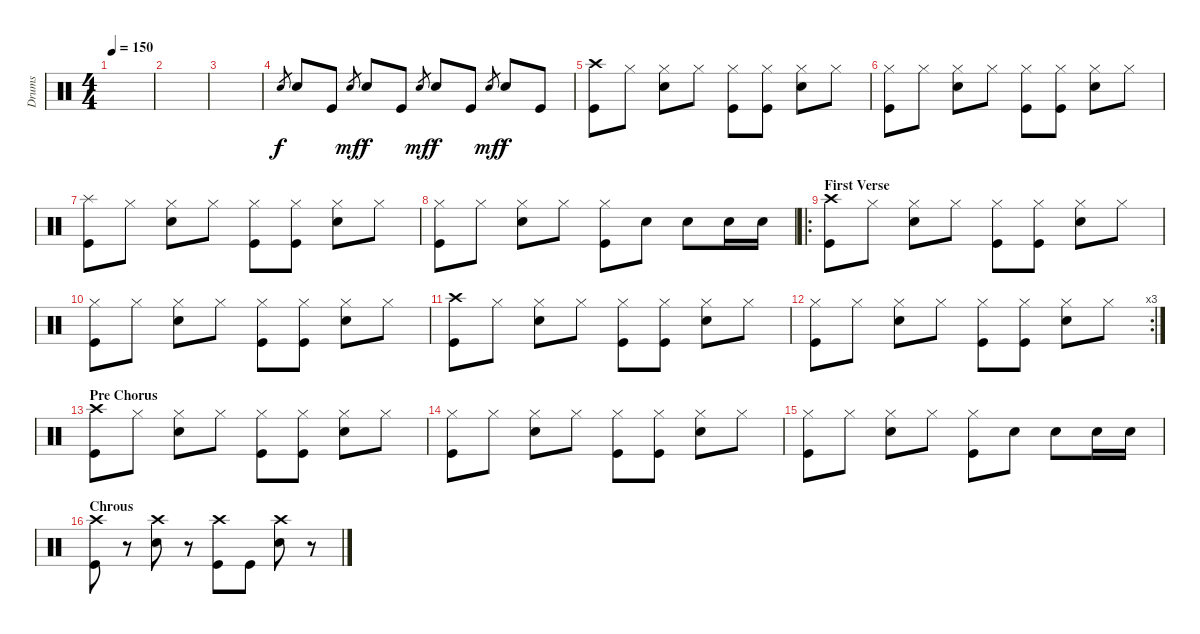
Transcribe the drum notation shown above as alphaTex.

\track ("Drums" "Drums") {instrument percussion}
\staff {score}
\articulation defaults
\ts (4 4)
\tempo 150
\clef neutral
\ks c
|
|
|
"Snare (hit) 2".8{gr} "Snare (hit) 2".8{dy f} "Kick (hit)".8 "Snare (hit) 2".8{gr dy mf} "Snare (hit) 2".8{dy f} "Kick (hit)".8 "Snare (hit) 2".8{gr dy mf} "Snare (hit) 2".8{dy f} "Kick (hit)".8 "Snare (hit) 2".8{gr dy mf} "Snare (hit) 2".8{dy f} "Kick (hit)".8 |
("Crash high (hit)" "Kick (hit)").8 "Hi-Hat (closed)".8 ("Hi-Hat (closed)" "Snare (hit) 2").8 "Hi-Hat (closed)".8 ("Hi-Hat (closed)" "Kick (hit)").8 ("Hi-Hat (closed)" "Kick (hit)").8 ("Hi-Hat (closed)" "Snare (hit) 2").8 "Hi-Hat (closed)".8 |
("Hi-Hat (closed)" "Kick (hit)").8 "Hi-Hat (closed)".8 ("Hi-Hat (closed)" "Snare (hit) 2").8 "Hi-Hat (closed)".8 ("Hi-Hat (closed)" "Kick (hit)").8 ("Hi-Hat (closed)" "Kick (hit)").8 ("Hi-Hat (closed)" "Snare (hit) 2").8 "Hi-Hat (closed)".8 |
("Splash (hit)" "Kick (hit)").8 "Hi-Hat (closed)".8 ("Hi-Hat (closed)" "Snare (hit) 2").8 "Hi-Hat (closed)".8 ("Hi-Hat (closed)" "Kick (hit)").8 ("Hi-Hat (closed)" "Kick (hit)").8 ("Hi-Hat (closed)" "Snare (hit) 2").8 "Hi-Hat (closed)".8 |
("Hi-Hat (closed)" "Kick (hit)").8 "Hi-Hat (closed)".8 ("Hi-Hat (closed)" "Snare (hit) 2").8 "Hi-Hat (closed)".8 ("Hi-Hat (closed)" "Kick (hit)").8 "Snare (hit) 2".8 "Snare (hit) 2".8 "Snare (hit) 2".16 "Snare (hit) 2".16 |
\ro
\section ("" "First Verse")
("Crash high (hit)" "Kick (hit)").8 "Hi-Hat (closed)".8 ("Hi-Hat (closed)" "Snare (hit) 2").8 "Hi-Hat (closed)".8 ("Hi-Hat (closed)" "Kick (hit)").8 ("Hi-Hat (closed)" "Kick (hit)").8 ("Hi-Hat (closed)" "Snare (hit) 2").8 "Hi-Hat (closed)".8 |
("Hi-Hat (closed)" "Kick (hit)").8 "Hi-Hat (closed)".8 ("Hi-Hat (closed)" "Snare (hit) 2").8 "Hi-Hat (closed)".8 ("Hi-Hat (closed)" "Kick (hit)").8 ("Hi-Hat (closed)" "Kick (hit)").8 ("Hi-Hat (closed)" "Snare (hit) 2").8 "Hi-Hat (closed)".8 |
("Crash high (hit)" "Kick (hit)").8 "Hi-Hat (closed)".8 ("Hi-Hat (closed)" "Snare (hit) 2").8 "Hi-Hat (closed)".8 ("Hi-Hat (closed)" "Kick (hit)").8 ("Hi-Hat (closed)" "Kick (hit)").8 ("Hi-Hat (closed)" "Snare (hit) 2").8 "Hi-Hat (closed)".8 |
\rc 3
("Hi-Hat (closed)" "Kick (hit)").8 "Hi-Hat (closed)".8 ("Hi-Hat (closed)" "Snare (hit) 2").8 "Hi-Hat (closed)".8 ("Hi-Hat (closed)" "Kick (hit)").8 ("Hi-Hat (closed)" "Kick (hit)").8 ("Hi-Hat (closed)" "Snare (hit) 2").8 "Hi-Hat (closed)".8 |
\section ("" "Pre Chorus")
("Crash high (hit)" "Kick (hit)").8 "Hi-Hat (closed)".8 ("Hi-Hat (closed)" "Snare (hit) 2").8 "Hi-Hat (closed)".8 ("Hi-Hat (closed)" "Kick (hit)").8 ("Hi-Hat (closed)" "Kick (hit)").8 ("Hi-Hat (closed)" "Snare (hit) 2").8 "Hi-Hat (closed)".8 |
("Hi-Hat (closed)" "Kick (hit)").8 "Hi-Hat (closed)".8 ("Hi-Hat (closed)" "Snare (hit) 2").8 "Hi-Hat (closed)".8 ("Hi-Hat (closed)" "Kick (hit)").8 ("Hi-Hat (closed)" "Kick (hit)").8 ("Hi-Hat (closed)" "Snare (hit) 2").8 "Hi-Hat (closed)".8 |
("Hi-Hat (closed)" "Kick (hit)").8 "Hi-Hat (closed)".8 ("Hi-Hat (closed)" "Snare (hit) 2").8 "Hi-Hat (closed)".8 ("Hi-Hat (closed)" "Kick (hit)").8 "Snare (hit) 2".8 "Snare (hit) 2".8 "Snare (hit) 2".16 "Snare (hit) 2".16 |
\section ("" "Chrous")
("Crash high (hit)" "Kick (hit)").8 r.8 ("Crash high (hit)" "Snare (hit) 2").8 r.8 ("Crash high (hit)" "Kick (hit)").8 "Kick (hit)".8 ("Crash high (hit)" "Snare (hit) 2").8 r.8
